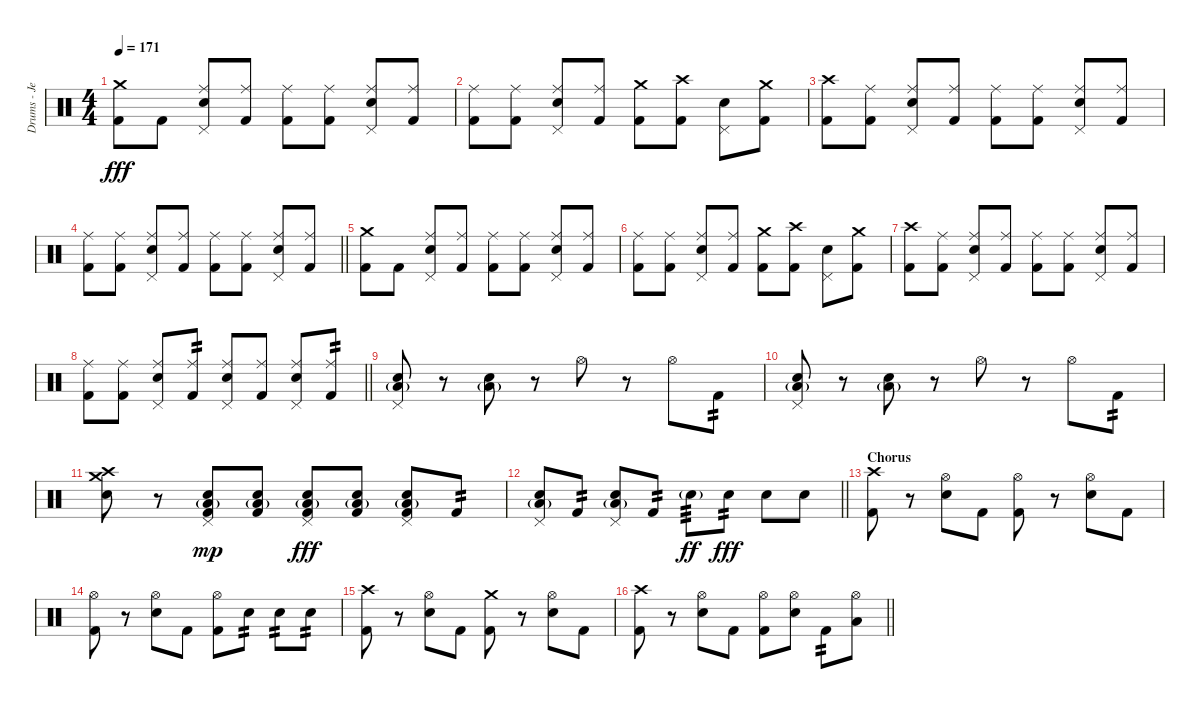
\track ("Drums - Jerinx" "Drums - Je") {instrument percussion}
\staff {score}
\articulation defaults
\ts (4 4)
\tempo 171
\clef neutral
\ks c
("Kick (hit) 2" "Crash medium (hit)").8{dy fff} "Kick (hit) 2".8 ("Pedal Hi-Hat (hit)" "Snare (hit) 2" "Ride (middle)").8 ("Kick (hit) 2" "Ride (middle)").8 ("Kick (hit) 2" "Ride (middle)").8 ("Kick (hit) 2" "Ride (middle)").8 ("Pedal Hi-Hat (hit)" "Snare (hit) 2" "Ride (middle)").8 ("Kick (hit) 2" "Ride (middle)").8 |
("Kick (hit) 2" "Ride (middle)").8 ("Kick (hit) 2" "Ride (middle)").8 ("Pedal Hi-Hat (hit)" "Snare (hit) 2" "Ride (middle)").8 ("Kick (hit) 2" "Ride (middle)").8 ("Kick (hit) 2" "Crash medium (hit)").8 ("Kick (hit) 2" "Crash high (hit)").8 ("Pedal Hi-Hat (hit)" "Snare (hit) 2").8 ("Kick (hit) 2" "Crash medium (hit)").8 |
("Kick (hit) 2" "Crash high (hit)").8 ("Kick (hit) 2" "Ride (middle)").8 ("Pedal Hi-Hat (hit)" "Snare (hit) 2" "Ride (middle)").8 ("Kick (hit) 2" "Ride (middle)").8 ("Kick (hit) 2" "Ride (middle)").8 ("Kick (hit) 2" "Ride (middle)").8 ("Pedal Hi-Hat (hit)" "Snare (hit) 2" "Ride (middle)").8 ("Kick (hit) 2" "Ride (middle)").8 |
\barLineRight lightlight
("Kick (hit) 2" "Ride (middle)").8 ("Kick (hit) 2" "Ride (middle)").8 ("Pedal Hi-Hat (hit)" "Snare (hit) 2" "Ride (middle)").8 ("Kick (hit) 2" "Ride (middle)").8 ("Kick (hit) 2" "Ride (middle)").8 ("Kick (hit) 2" "Ride (middle)").8 ("Pedal Hi-Hat (hit)" "Snare (hit) 2" "Ride (middle)").8 ("Kick (hit) 2" "Ride (middle)").8 |
("Kick (hit) 2" "Crash medium (hit)").8 "Kick (hit) 2".8 ("Pedal Hi-Hat (hit)" "Snare (hit) 2" "Ride (middle)").8 ("Kick (hit) 2" "Ride (middle)").8 ("Kick (hit) 2" "Ride (middle)").8 ("Kick (hit) 2" "Ride (middle)").8 ("Pedal Hi-Hat (hit)" "Snare (hit) 2" "Ride (middle)").8 ("Kick (hit) 2" "Ride (middle)").8 |
("Kick (hit) 2" "Ride (middle)").8 ("Kick (hit) 2" "Ride (middle)").8 ("Pedal Hi-Hat (hit)" "Snare (hit) 2" "Ride (middle)").8 ("Kick (hit) 2" "Ride (middle)").8 ("Kick (hit) 2" "Crash medium (hit)").8 ("Kick (hit) 2" "Crash high (hit)").8 ("Pedal Hi-Hat (hit)" "Snare (hit) 2").8 ("Kick (hit) 2" "Crash medium (hit)").8 |
("Kick (hit) 2" "Crash high (hit)").8 ("Kick (hit) 2" "Ride (middle)").8 ("Pedal Hi-Hat (hit)" "Snare (hit) 2" "Ride (middle)").8 ("Kick (hit) 2" "Ride (middle)").8 ("Kick (hit) 2" "Ride (middle)").8 ("Kick (hit) 2" "Ride (middle)").8 ("Pedal Hi-Hat (hit)" "Snare (hit) 2" "Ride (middle)").8 ("Kick (hit) 2" "Ride (middle)").8 |
\barLineRight lightlight
("Kick (hit) 2" "Ride (middle)").8 ("Kick (hit) 2" "Ride (middle)").8 ("Pedal Hi-Hat (hit)" "Snare (hit) 2" "Ride (middle)").8 ("Kick (hit) 2" "Ride (middle)").8{tp 2} ("Pedal Hi-Hat (hit)" "Snare (hit) 2" "Ride (middle)").8 ("Kick (hit) 2" "Ride (middle)").8 ("Pedal Hi-Hat (hit)" "Snare (hit) 2" "Ride (middle)").8 ("Kick (hit) 2" "Ride (middle)").8{tp 2} |
("Pedal Hi-Hat (hit)" "Snare (hit) 2" "Low Floor Tom (hit)"{g}).8 r.8 ("Snare (hit) 2" "Low Floor Tom (hit)"{g}).8 r.8 "Hi-Hat (open)".8 r.8 "Hi-Hat (open)".8 "Kick (hit) 2".8{tp 2} |
("Pedal Hi-Hat (hit)" "Snare (hit) 2" "Low Floor Tom (hit)"{g}).8 r.8 ("Snare (hit) 2" "Low Floor Tom (hit)"{g}).8 r.8 "Hi-Hat (open)".8 r.8 "Hi-Hat (open)".8 "Kick (hit) 2".8{tp 2} |
("Snare (hit) 2" "Crash high (hit)" "Crash medium (hit)").8 r.8 ("Pedal Hi-Hat (hit)" "Snare (hit) 2" "Kick (hit) 2" "Low Floor Tom (hit)"{g}).8{dy mp} ("Snare (hit) 2" "Kick (hit) 2" "Low Floor Tom (hit)"{g}).8 ("Pedal Hi-Hat (hit)" "Snare (hit) 2" "Kick (hit) 2" "Low Floor Tom (hit)"{g}).8{dy fff} ("Snare (hit) 2" "Kick (hit) 2" "Low Floor Tom (hit)"{g}).8 ("Pedal Hi-Hat (hit)" "Snare (hit) 2" "Kick (hit) 2" "Low Floor Tom (hit)"{g}).8 "Kick (hit) 2".8{tp 2} |
\barLineRight lightlight
("Pedal Hi-Hat (hit)" "Snare (hit) 2" "Low Floor Tom (hit)"{g}).8 "Kick (hit) 2".8{tp 2} ("Pedal Hi-Hat (hit)" "Snare (hit) 2" "Low Floor Tom (hit)"{g}).8 "Kick (hit) 2".8{tp 2} "Snare (hit) 2"{g}.8{tp 3 dy ff} "Snare (hit) 2".8{tp 2 dy fff} "Snare (hit) 2".8 "Snare (hit) 2".8 |
\section ("" "Chorus")
("Kick (hit) 2" "Crash high (hit)").8 r.8 ("Hi-Hat (open)" "Snare (hit) 2").8 "Kick (hit) 2".8 ("Hi-Hat (open)" "Kick (hit) 2").8 r.8 ("Hi-Hat (open)" "Snare (hit) 2").8 "Kick (hit) 2".8 |
("Hi-Hat (open)" "Kick (hit) 2").8 r.8 ("Hi-Hat (open)" "Snare (hit) 2").8 "Kick (hit) 2".8 ("Hi-Hat (open)" "Kick (hit) 2").8 "Snare (hit) 2".8{tp 2} "Snare (hit) 2".8{tp 2} "Snare (hit) 2".8{tp 2} |
("Kick (hit) 2" "Crash high (hit)").8 r.8 ("Hi-Hat (open)" "Snare (hit) 2").8 "Kick (hit) 2".8 ("Kick (hit) 2" "Crash medium (hit)").8 r.8 ("Hi-Hat (open)" "Snare (hit) 2").8 "Kick (hit) 2".8 |
\barLineRight lightlight
("Kick (hit) 2" "Crash high (hit)").8 r.8 ("Hi-Hat (open)" "Snare (hit) 2").8 "Kick (hit) 2".8 ("Hi-Hat (open)" "Kick (hit) 2").8 ("Hi-Hat (open)" "Snare (hit) 2").8 "Kick (hit) 2".8{tp 2} ("Hi-Hat (open)" "Low Tom (hit)").8
